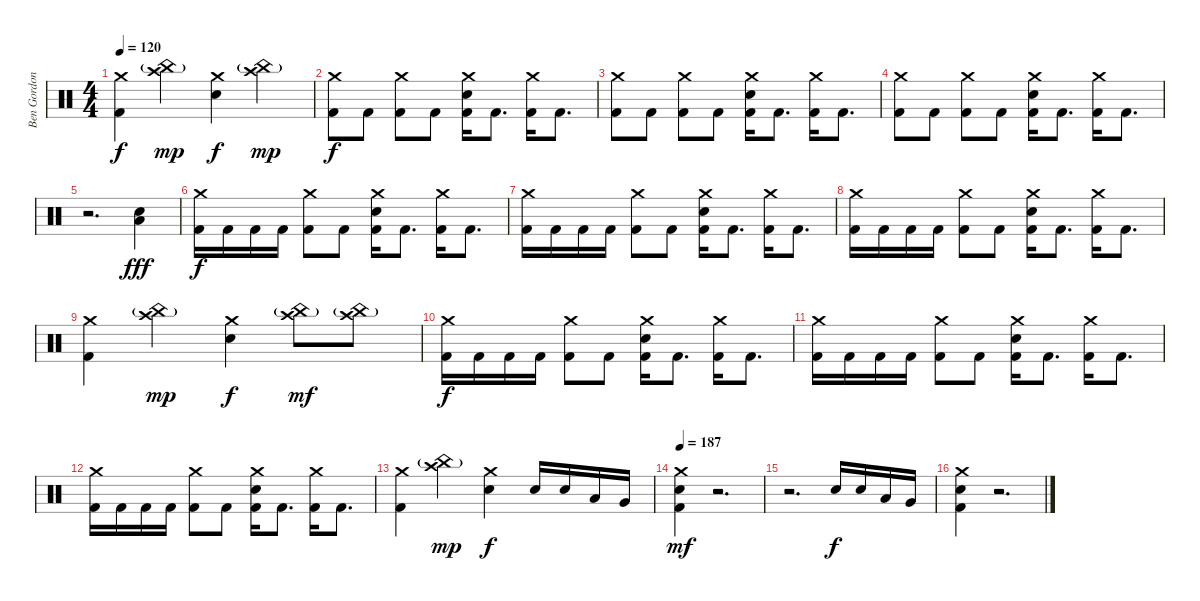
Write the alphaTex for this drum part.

\track ("Ben Gordon" "Ben Gordon") {instrument percussion}
\staff {score}
\articulation defaults
\ts (4 4)
\tempo 120
\clef neutral
\ks c
("Crash medium (hit)" "Kick (hit) 2").4{dy f} ("Crash high (hit)" "China (hit)"{g}).4{dy mp} ("Crash medium (hit)" "Electric Snare (hit)").4{dy f} ("Crash high (hit)" "China (hit)"{g}).4{dy mp} |
("Crash medium (hit)" "Kick (hit) 2").8{dy f} "Kick (hit) 2".8 ("Crash medium (hit)" "Kick (hit) 2").8 "Kick (hit) 2".8 ("Crash medium (hit)" "Electric Snare (hit)" "Kick (hit) 2").16 "Kick (hit) 2".8{d} ("Crash medium (hit)" "Kick (hit) 2").16 "Kick (hit) 2".8{d} |
("Crash medium (hit)" "Kick (hit) 2").8 "Kick (hit) 2".8 ("Crash medium (hit)" "Kick (hit) 2").8 "Kick (hit) 2".8 ("Crash medium (hit)" "Electric Snare (hit)" "Kick (hit) 2").16 "Kick (hit) 2".8{d} ("Crash medium (hit)" "Kick (hit) 2").16 "Kick (hit) 2".8{d} |
("Crash medium (hit)" "Kick (hit) 2").8 "Kick (hit) 2".8 ("Crash medium (hit)" "Kick (hit) 2").8 "Kick (hit) 2".8 ("Crash medium (hit)" "Electric Snare (hit)" "Kick (hit) 2").16 "Kick (hit) 2".8{d} ("Crash medium (hit)" "Kick (hit) 2").16 "Kick (hit) 2".8{d} |
r.2{d} ("Low Floor Tom (hit)" "Electric Snare (hit)").4{dy fff} |
("Crash medium (hit)" "Kick (hit) 2").16{dy f} "Kick (hit) 2".16 "Kick (hit) 2".16 "Kick (hit) 2".16 ("Crash medium (hit)" "Kick (hit) 2").8 "Kick (hit) 2".8 ("Crash medium (hit)" "Electric Snare (hit)" "Kick (hit) 2").16 "Kick (hit) 2".8{d} ("Crash medium (hit)" "Kick (hit) 2").16 "Kick (hit) 2".8{d} |
("Crash medium (hit)" "Kick (hit) 2").16 "Kick (hit) 2".16 "Kick (hit) 2".16 "Kick (hit) 2".16 ("Crash medium (hit)" "Kick (hit) 2").8 "Kick (hit) 2".8 ("Crash medium (hit)" "Electric Snare (hit)" "Kick (hit) 2").16 "Kick (hit) 2".8{d} ("Crash medium (hit)" "Kick (hit) 2").16 "Kick (hit) 2".8{d} |
("Crash medium (hit)" "Kick (hit) 2").16 "Kick (hit) 2".16 "Kick (hit) 2".16 "Kick (hit) 2".16 ("Crash medium (hit)" "Kick (hit) 2").8 "Kick (hit) 2".8 ("Crash medium (hit)" "Electric Snare (hit)" "Kick (hit) 2").16 "Kick (hit) 2".8{d} ("Crash medium (hit)" "Kick (hit) 2").16 "Kick (hit) 2".8{d} |
("Crash medium (hit)" "Kick (hit) 2").4 ("Crash high (hit)" "China (hit)"{g}).4{dy mp} ("Crash medium (hit)" "Electric Snare (hit)").4{dy f} ("Crash high (hit)" "China (hit)"{g}).8{dy mf} ("Crash high (hit)" "China (hit)"{g}).8 |
("Crash medium (hit)" "Kick (hit) 2").16{dy f} "Kick (hit) 2".16 "Kick (hit) 2".16 "Kick (hit) 2".16 ("Crash medium (hit)" "Kick (hit) 2").8 "Kick (hit) 2".8 ("Crash medium (hit)" "Electric Snare (hit)" "Kick (hit) 2").16 "Kick (hit) 2".8{d} ("Crash medium (hit)" "Kick (hit) 2").16 "Kick (hit) 2".8{d} |
("Crash medium (hit)" "Kick (hit) 2").16 "Kick (hit) 2".16 "Kick (hit) 2".16 "Kick (hit) 2".16 ("Crash medium (hit)" "Kick (hit) 2").8 "Kick (hit) 2".8 ("Crash medium (hit)" "Electric Snare (hit)" "Kick (hit) 2").16 "Kick (hit) 2".8{d} ("Crash medium (hit)" "Kick (hit) 2").16 "Kick (hit) 2".8{d} |
("Crash medium (hit)" "Kick (hit) 2").16 "Kick (hit) 2".16 "Kick (hit) 2".16 "Kick (hit) 2".16 ("Crash medium (hit)" "Kick (hit) 2").8 "Kick (hit) 2".8 ("Crash medium (hit)" "Electric Snare (hit)" "Kick (hit) 2").16 "Kick (hit) 2".8{d} ("Crash medium (hit)" "Kick (hit) 2").16 "Kick (hit) 2".8{d} |
("Crash medium (hit)" "Kick (hit) 2").4 ("Crash high (hit)" "China (hit)"{g}).4{dy mp} ("Crash medium (hit)" "Electric Snare (hit)").4{dy f} "Electric Snare (hit)".16 "Electric Snare (hit)".16 "Low Tom (hit)".16 "Very Low Tom (hit)".16 |
\tempo 187
("Crash medium (hit)" "Electric Snare (hit)" "Kick (hit) 2").4{dy mf} r.2{d} |
r.2{d} "Electric Snare (hit)".16{dy f} "Electric Snare (hit)".16 "Low Tom (hit)".16 "Very Low Tom (hit)".16 |
("Crash medium (hit)" "Electric Snare (hit)" "Kick (hit) 2").4 r.2{d}
